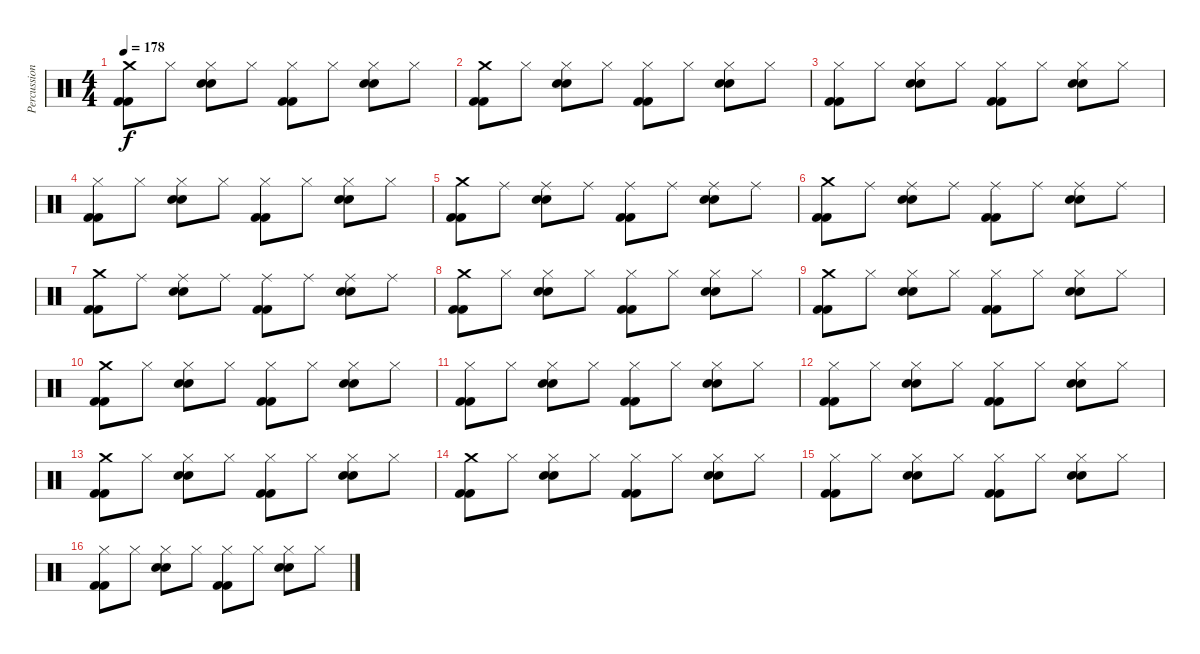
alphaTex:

\track ("Percussion" "Percussion") {instrument percussion}
\staff {score}
\articulation defaults
\ts (4 4)
\tempo 178
\clef neutral
\ks c
("Crash medium (hit)" "Kick (hit) 2" "Kick (hit) 2").8{dy f} "Hi-Hat (closed)".8 ("Hi-Hat (closed)" "Snare (hit) 2" "Snare (hit) 2").8 "Hi-Hat (closed)".8 ("Hi-Hat (closed)" "Kick (hit) 2" "Kick (hit) 2").8 "Hi-Hat (closed)".8 ("Hi-Hat (closed)" "Snare (hit) 2" "Snare (hit) 2").8 "Hi-Hat (closed)".8 |
("Crash medium (hit)" "Kick (hit) 2" "Kick (hit) 2").8 "Hi-Hat (closed)".8 ("Hi-Hat (closed)" "Snare (hit) 2" "Snare (hit) 2").8 "Hi-Hat (closed)".8 ("Hi-Hat (closed)" "Kick (hit) 2" "Kick (hit) 2").8 "Hi-Hat (closed)".8 ("Hi-Hat (closed)" "Snare (hit) 2" "Snare (hit) 2").8 "Hi-Hat (closed)".8 |
("Hi-Hat (closed)" "Kick (hit) 2" "Kick (hit) 2").8 "Hi-Hat (closed)".8 ("Hi-Hat (closed)" "Snare (hit) 2" "Snare (hit) 2").8 "Hi-Hat (closed)".8 ("Hi-Hat (closed)" "Kick (hit) 2" "Kick (hit) 2").8 "Hi-Hat (closed)".8 ("Hi-Hat (closed)" "Snare (hit) 2" "Snare (hit) 2").8 "Hi-Hat (closed)".8 |
("Hi-Hat (closed)" "Kick (hit) 2" "Kick (hit) 2").8 "Hi-Hat (closed)".8 ("Hi-Hat (closed)" "Snare (hit) 2" "Snare (hit) 2").8 "Hi-Hat (closed)".8 ("Hi-Hat (closed)" "Kick (hit) 2" "Kick (hit) 2").8 "Hi-Hat (closed)".8 ("Hi-Hat (closed)" "Snare (hit) 2" "Snare (hit) 2").8 "Hi-Hat (closed)".8 |
("Crash medium (hit)" "Kick (hit) 2" "Kick (hit) 2").8 "Ride (middle)".8 ("Ride (middle)" "Snare (hit) 2" "Snare (hit) 2").8 "Ride (middle)".8 ("Ride (middle)" "Kick (hit) 2" "Kick (hit) 2").8 "Ride (middle)".8 ("Ride (middle)" "Snare (hit) 2" "Snare (hit) 2").8 "Ride (middle)".8 |
("Crash medium (hit)" "Kick (hit) 2" "Kick (hit) 2").8 "Ride (middle)".8 ("Ride (middle)" "Snare (hit) 2" "Snare (hit) 2").8 "Ride (middle)".8 ("Ride (middle)" "Kick (hit) 2" "Kick (hit) 2").8 "Ride (middle)".8 ("Ride (middle)" "Snare (hit) 2" "Snare (hit) 2").8 "Ride (middle)".8 |
("Crash medium (hit)" "Kick (hit) 2" "Kick (hit) 2").8 "Ride (middle)".8 ("Ride (middle)" "Snare (hit) 2" "Snare (hit) 2").8 "Ride (middle)".8 ("Ride (middle)" "Kick (hit) 2" "Kick (hit) 2").8 "Ride (middle)".8 ("Ride (middle)" "Snare (hit) 2" "Snare (hit) 2").8 "Ride (middle)".8 |
("Crash medium (hit)" "Kick (hit) 2" "Kick (hit) 2").8 "Hi-Hat (closed)".8 ("Hi-Hat (closed)" "Snare (hit) 2" "Snare (hit) 2").8 "Hi-Hat (closed)".8 ("Hi-Hat (closed)" "Kick (hit) 2" "Kick (hit) 2").8 "Hi-Hat (closed)".8 ("Hi-Hat (closed)" "Snare (hit) 2" "Snare (hit) 2").8 "Hi-Hat (closed)".8 |
("Crash medium (hit)" "Kick (hit) 2" "Kick (hit) 2").8 "Hi-Hat (closed)".8 ("Hi-Hat (closed)" "Snare (hit) 2" "Snare (hit) 2").8 "Hi-Hat (closed)".8 ("Hi-Hat (closed)" "Kick (hit) 2" "Kick (hit) 2").8 "Hi-Hat (closed)".8 ("Hi-Hat (closed)" "Snare (hit) 2" "Snare (hit) 2").8 "Hi-Hat (closed)".8 |
("Crash medium (hit)" "Kick (hit) 2" "Kick (hit) 2").8 "Hi-Hat (closed)".8 ("Hi-Hat (closed)" "Snare (hit) 2" "Snare (hit) 2").8 "Hi-Hat (closed)".8 ("Hi-Hat (closed)" "Kick (hit) 2" "Kick (hit) 2").8 "Hi-Hat (closed)".8 ("Hi-Hat (closed)" "Snare (hit) 2" "Snare (hit) 2").8 "Hi-Hat (closed)".8 |
("Hi-Hat (closed)" "Kick (hit) 2" "Kick (hit) 2").8 "Hi-Hat (closed)".8 ("Hi-Hat (closed)" "Snare (hit) 2" "Snare (hit) 2").8 "Hi-Hat (closed)".8 ("Hi-Hat (closed)" "Kick (hit) 2" "Kick (hit) 2").8 "Hi-Hat (closed)".8 ("Hi-Hat (closed)" "Snare (hit) 2" "Snare (hit) 2").8 "Hi-Hat (closed)".8 |
("Hi-Hat (closed)" "Kick (hit) 2" "Kick (hit) 2").8 "Hi-Hat (closed)".8 ("Hi-Hat (closed)" "Snare (hit) 2" "Snare (hit) 2").8 "Hi-Hat (closed)".8 ("Hi-Hat (closed)" "Kick (hit) 2" "Kick (hit) 2").8 "Hi-Hat (closed)".8 ("Hi-Hat (closed)" "Snare (hit) 2" "Snare (hit) 2").8 "Hi-Hat (closed)".8 |
("Crash medium (hit)" "Kick (hit) 2" "Kick (hit) 2").8 "Hi-Hat (closed)".8 ("Hi-Hat (closed)" "Snare (hit) 2" "Snare (hit) 2").8 "Hi-Hat (closed)".8 ("Hi-Hat (closed)" "Kick (hit) 2" "Kick (hit) 2").8 "Hi-Hat (closed)".8 ("Hi-Hat (closed)" "Snare (hit) 2" "Snare (hit) 2").8 "Hi-Hat (closed)".8 |
("Crash medium (hit)" "Kick (hit) 2" "Kick (hit) 2").8 "Hi-Hat (closed)".8 ("Hi-Hat (closed)" "Snare (hit) 2" "Snare (hit) 2").8 "Hi-Hat (closed)".8 ("Hi-Hat (closed)" "Kick (hit) 2" "Kick (hit) 2").8 "Hi-Hat (closed)".8 ("Hi-Hat (closed)" "Snare (hit) 2" "Snare (hit) 2").8 "Hi-Hat (closed)".8 |
("Hi-Hat (closed)" "Kick (hit) 2" "Kick (hit) 2").8 "Hi-Hat (closed)".8 ("Hi-Hat (closed)" "Snare (hit) 2" "Snare (hit) 2").8 "Hi-Hat (closed)".8 ("Hi-Hat (closed)" "Kick (hit) 2" "Kick (hit) 2").8 "Hi-Hat (closed)".8 ("Hi-Hat (closed)" "Snare (hit) 2" "Snare (hit) 2").8 "Hi-Hat (closed)".8 |
("Hi-Hat (closed)" "Kick (hit) 2" "Kick (hit) 2").8 "Hi-Hat (closed)".8 ("Hi-Hat (closed)" "Snare (hit) 2" "Snare (hit) 2").8 "Hi-Hat (closed)".8 ("Hi-Hat (closed)" "Kick (hit) 2" "Kick (hit) 2").8 "Hi-Hat (closed)".8 ("Hi-Hat (closed)" "Snare (hit) 2" "Snare (hit) 2").8 "Hi-Hat (closed)".8
